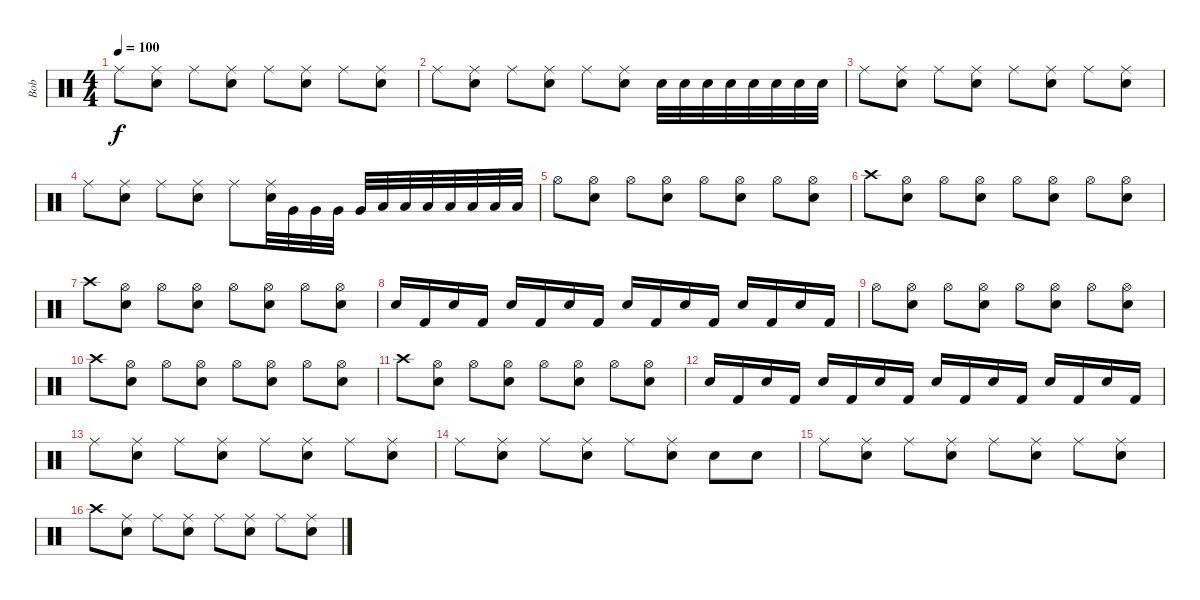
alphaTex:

\track ("Bob" "Bob") {instrument percussion}
\staff {score}
\articulation defaults
\ts (4 4)
\tempo 100
\clef neutral
\ks c "Ride (middle)".8{dy f}
("Ride (middle)" "Snare (hit) 2").8 "Ride (middle)".8 ("Ride (middle)" "Snare (hit) 2").8 "Ride (middle)".8 ("Ride (middle)" "Snare (hit) 2").8 "Ride (middle)".8 ("Ride (middle)" "Snare (hit) 2").8 |
"Ride (middle)".8 ("Ride (middle)" "Snare (hit) 2").8 "Ride (middle)".8 ("Ride (middle)" "Snare (hit) 2").8 "Ride (middle)".8 ("Ride (middle)" "Snare (hit) 2").8 "Snare (hit) 2".32 "Snare (hit) 2".32 "Snare (hit) 2".32 "Snare (hit) 2".32 "Snare (hit) 2".32 "Snare (hit) 2".32 "Snare (hit) 2".32 "Snare (hit) 2".32 |
"Ride (middle)".8 ("Ride (middle)" "Snare (hit) 2").8 "Ride (middle)".8 ("Ride (middle)" "Snare (hit) 2").8 "Ride (middle)".8 ("Ride (middle)" "Snare (hit) 2").8 "Ride (middle)".8 ("Ride (middle)" "Snare (hit) 2").8 |
"Ride (middle)".8 ("Ride (middle)" "Snare (hit) 2").8 "Ride (middle)".8 ("Ride (middle)" "Snare (hit) 2").8 "Ride (middle)".8 ("Ride (middle)" "Snare (hit) 2").32 "Very Low Tom (hit)".32 "Very Low Tom (hit)".32 "Very Low Tom (hit)".32 "Very Low Tom (hit)".32 "Low Floor Tom (hit)".32 "Low Floor Tom (hit)".32 "Low Floor Tom (hit)".32 "Low Floor Tom (hit)".32 "Low Floor Tom (hit)".32 "Low Floor Tom (hit)".32 "Low Floor Tom (hit)".32 |
"Hi-Hat (open)".8 ("Hi-Hat (open)" "Snare (hit) 2").8 "Hi-Hat (open)".8 ("Hi-Hat (open)" "Snare (hit) 2").8 "Hi-Hat (open)".8 ("Snare (hit) 2" "Hi-Hat (open)").8 "Hi-Hat (open)".8 ("Snare (hit) 2" "Hi-Hat (open)").8 |
"Crash high (hit)".8 ("Hi-Hat (open)" "Snare (hit) 2").8 "Hi-Hat (open)".8 ("Hi-Hat (open)" "Snare (hit) 2").8 "Hi-Hat (open)".8 ("Hi-Hat (open)" "Snare (hit) 2").8 "Hi-Hat (open)".8 ("Hi-Hat (open)" "Snare (hit) 2").8 |
"Crash high (hit)".8 ("Snare (hit) 2" "Hi-Hat (open)").8 "Hi-Hat (open)".8 ("Hi-Hat (open)" "Snare (hit) 2").8 "Hi-Hat (open)".8 ("Hi-Hat (open)" "Snare (hit) 2").8 "Hi-Hat (open)".8 ("Hi-Hat (open)" "Snare (hit) 2").8 |
"Snare (hit) 2".16 "Kick (hit) 2".16 "Snare (hit) 2".16 "Kick (hit) 2".16 "Snare (hit) 2".16 "Kick (hit) 2".16 "Snare (hit) 2".16 "Kick (hit) 2".16 "Snare (hit) 2".16 "Kick (hit) 2".16 "Snare (hit) 2".16 "Kick (hit) 2".16 "Snare (hit) 2".16 "Kick (hit) 2".16 "Snare (hit) 2".16 "Kick (hit) 2".16 |
"Hi-Hat (open)".8 ("Hi-Hat (open)" "Snare (hit) 2").8 "Hi-Hat (open)".8 ("Hi-Hat (open)" "Snare (hit) 2").8 "Hi-Hat (open)".8 ("Snare (hit) 2" "Hi-Hat (open)").8 "Hi-Hat (open)".8 ("Snare (hit) 2" "Hi-Hat (open)").8 |
"Crash high (hit)".8 ("Hi-Hat (open)" "Snare (hit) 2").8 "Hi-Hat (open)".8 ("Hi-Hat (open)" "Snare (hit) 2").8 "Hi-Hat (open)".8 ("Hi-Hat (open)" "Snare (hit) 2").8 "Hi-Hat (open)".8 ("Hi-Hat (open)" "Snare (hit) 2").8 |
"Crash high (hit)".8 ("Snare (hit) 2" "Hi-Hat (open)").8 "Hi-Hat (open)".8 ("Hi-Hat (open)" "Snare (hit) 2").8 "Hi-Hat (open)".8 ("Hi-Hat (open)" "Snare (hit) 2").8 "Hi-Hat (open)".8 ("Hi-Hat (open)" "Snare (hit) 2").8 |
"Snare (hit) 2".16 "Kick (hit) 2".16 "Snare (hit) 2".16 "Kick (hit) 2".16 "Snare (hit) 2".16 "Kick (hit) 2".16 "Snare (hit) 2".16 "Kick (hit) 2".16 "Snare (hit) 2".16 "Kick (hit) 2".16 "Snare (hit) 2".16 "Kick (hit) 2".16 "Snare (hit) 2".16 "Kick (hit) 2".16 "Snare (hit) 2".16 "Kick (hit) 2".16 |
"Ride (middle)".8 ("Ride (middle)" "Snare (hit) 2").8 "Ride (middle)".8 ("Ride (middle)" "Snare (hit) 2").8 "Ride (middle)".8 ("Ride (middle)" "Snare (hit) 2").8 "Ride (middle)".8 ("Ride (middle)" "Snare (hit) 2").8 |
"Ride (middle)".8 ("Ride (middle)" "Snare (hit) 2").8 "Ride (middle)".8 ("Ride (middle)" "Snare (hit) 2").8 "Ride (middle)".8 ("Ride (middle)" "Snare (hit) 2").8 "Snare (hit) 2".8 "Snare (hit) 2".8 |
"Ride (middle)".8 ("Ride (middle)" "Snare (hit) 2").8 "Ride (middle)".8 ("Ride (middle)" "Snare (hit) 2").8 "Ride (middle)".8 ("Ride (middle)" "Snare (hit) 2").8 "Ride (middle)".8 ("Ride (middle)" "Snare (hit) 2").8 |
"Crash high (hit)".8 ("Ride (middle)" "Snare (hit) 2").8 "Ride (middle)".8 ("Ride (middle)" "Snare (hit) 2").8 "Ride (middle)".8 ("Ride (middle)" "Snare (hit) 2").8 "Ride (middle)".8 ("Ride (middle)" "Snare (hit) 2").8
